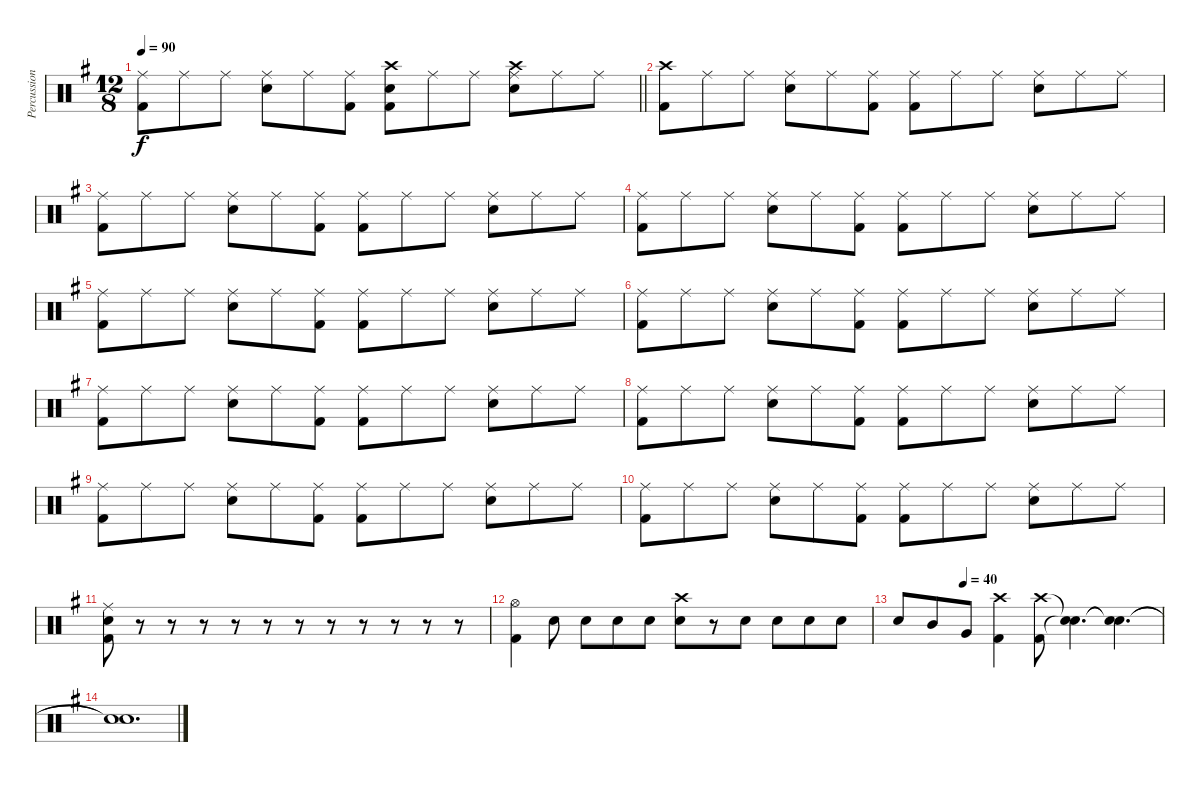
\track ("Percussion" "Percussion") {instrument percussion}
\staff {score}
\articulation defaults
\ts (12 8)
\tempo 90
\clef neutral
\barLineRight lightlight
\ks g
("Ride (middle)" "Kick (hit) 2").8{dy f} "Ride (middle)".8 "Ride (middle)".8 ("Ride (middle)" "Snare (hit) 2").8 "Ride (middle)".8 ("Ride (middle)" "Kick (hit) 2").8 ("Crash high (hit)" "Snare (hit) 2" "Kick (hit) 2").8 "Ride (middle)".8 "Ride (middle)".8 ("Ride (middle)" "Crash high (hit)" "Snare (hit) 2").8 "Ride (middle)".8 "Ride (middle)".8 |
("Crash high (hit)" "Kick (hit) 2").8 "Ride (middle)".8 "Ride (middle)".8 ("Ride (middle)" "Snare (hit) 2").8 "Ride (middle)".8 ("Ride (middle)" "Kick (hit) 2").8 ("Ride (middle)" "Kick (hit) 2").8 "Ride (middle)".8 "Ride (middle)".8 ("Ride (middle)" "Snare (hit) 2").8 "Ride (middle)".8 "Ride (middle)".8 |
("Ride (middle)" "Kick (hit) 2").8 "Ride (middle)".8 "Ride (middle)".8 ("Ride (middle)" "Snare (hit) 2").8 "Ride (middle)".8 ("Ride (middle)" "Kick (hit) 2").8 ("Ride (middle)" "Kick (hit) 2").8 "Ride (middle)".8 "Ride (middle)".8 ("Ride (middle)" "Snare (hit) 2").8 "Ride (middle)".8 "Ride (middle)".8 |
("Ride (middle)" "Kick (hit) 2").8 "Ride (middle)".8 "Ride (middle)".8 ("Ride (middle)" "Snare (hit) 2").8 "Ride (middle)".8 ("Ride (middle)" "Kick (hit) 2").8 ("Ride (middle)" "Kick (hit) 2").8 "Ride (middle)".8 "Ride (middle)".8 ("Ride (middle)" "Snare (hit) 2").8 "Ride (middle)".8 "Ride (middle)".8 |
("Ride (middle)" "Kick (hit) 2").8 "Ride (middle)".8 "Ride (middle)".8 ("Ride (middle)" "Snare (hit) 2").8 "Ride (middle)".8 ("Ride (middle)" "Kick (hit) 2").8 ("Ride (middle)" "Kick (hit) 2").8 "Ride (middle)".8 "Ride (middle)".8 ("Ride (middle)" "Snare (hit) 2").8 "Ride (middle)".8 "Ride (middle)".8 |
("Ride (middle)" "Kick (hit) 2").8 "Ride (middle)".8 "Ride (middle)".8 ("Ride (middle)" "Snare (hit) 2").8 "Ride (middle)".8 ("Ride (middle)" "Kick (hit) 2").8 ("Ride (middle)" "Kick (hit) 2").8 "Ride (middle)".8 "Ride (middle)".8 ("Ride (middle)" "Snare (hit) 2").8 "Ride (middle)".8 "Ride (middle)".8 |
("Ride (middle)" "Kick (hit) 2").8 "Ride (middle)".8 "Ride (middle)".8 ("Ride (middle)" "Snare (hit) 2").8 "Ride (middle)".8 ("Ride (middle)" "Kick (hit) 2").8 ("Ride (middle)" "Kick (hit) 2").8 "Ride (middle)".8 "Ride (middle)".8 ("Ride (middle)" "Snare (hit) 2").8 "Ride (middle)".8 "Ride (middle)".8 |
("Ride (middle)" "Kick (hit) 2").8 "Ride (middle)".8 "Ride (middle)".8 ("Ride (middle)" "Snare (hit) 2").8 "Ride (middle)".8 ("Ride (middle)" "Kick (hit) 2").8 ("Ride (middle)" "Kick (hit) 2").8 "Ride (middle)".8 "Ride (middle)".8 ("Ride (middle)" "Snare (hit) 2").8 "Ride (middle)".8 "Ride (middle)".8 |
("Ride (middle)" "Kick (hit) 2").8 "Ride (middle)".8 "Ride (middle)".8 ("Ride (middle)" "Snare (hit) 2").8 "Ride (middle)".8 ("Ride (middle)" "Kick (hit) 2").8 ("Ride (middle)" "Kick (hit) 2").8 "Ride (middle)".8 "Ride (middle)".8 ("Ride (middle)" "Snare (hit) 2").8 "Ride (middle)".8 "Ride (middle)".8 |
("Ride (middle)" "Kick (hit) 2").8 "Ride (middle)".8 "Ride (middle)".8 ("Ride (middle)" "Snare (hit) 2").8 "Ride (middle)".8 ("Ride (middle)" "Kick (hit) 2").8 ("Ride (middle)" "Kick (hit) 2").8 "Ride (middle)".8 "Ride (middle)".8 ("Ride (middle)" "Snare (hit) 2").8 "Ride (middle)".8 "Ride (middle)".8 |
("Ride (middle)" "Snare (hit) 2" "Kick (hit) 2").8 r.8 r.8 r.8 r.8 r.8 r.8 r.8 r.8 r.8 r.8 r.8 |
("Hi-Hat (open)" "Kick (hit) 2").4 "Snare (hit) 2".8 "Snare (hit) 2".8 "Snare (hit) 2".8 "Snare (hit) 2".8 ("Crash high (hit)" "Snare (hit) 2").8 r.8 "Snare (hit) 2".8 "Snare (hit) 2".8 "Snare (hit) 2".8 "Snare (hit) 2".8 |
\tempo (40 0.25)
"Snare (hit) 2".8 "Mid Tom (hit)".8 "Very Low Tom (hit)".8 ("Crash high (hit)" "Kick (hit) 2").4 ("Crash high (hit)" "Kick (hit) 2").8 ("Snare (hit)"{t} "Snare (hit)"{t}).4{d} ("Snare (hit)"{t} "Snare (hit)"{t}).4{d} |
("Snare (hit)"{t} "Snare (hit)"{t}).1{d}
